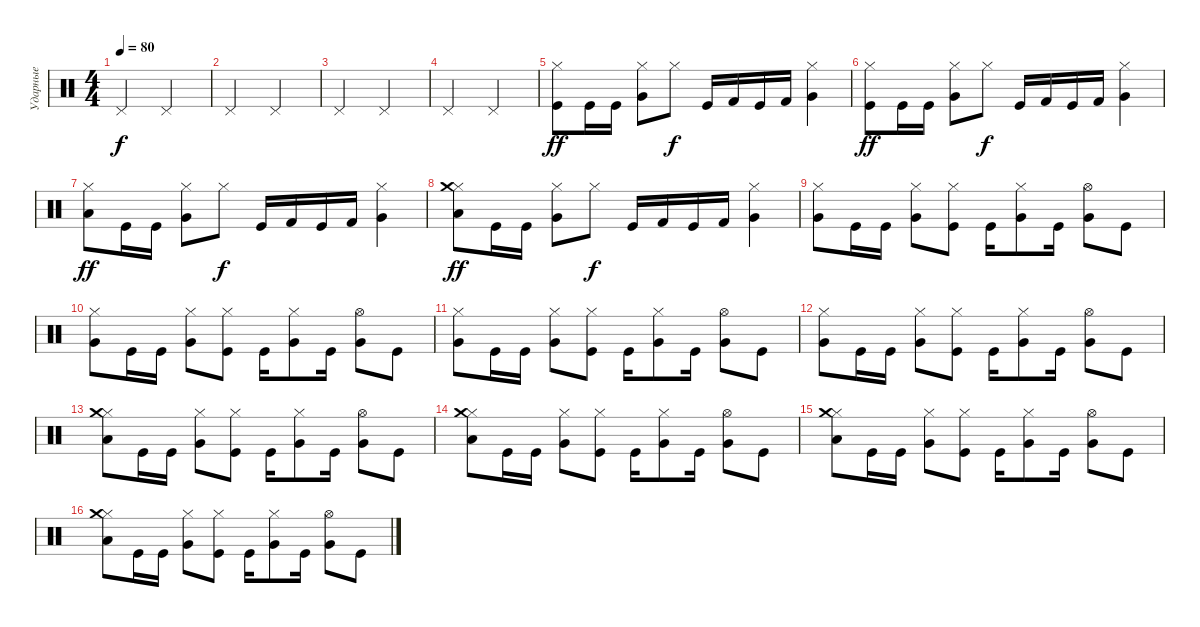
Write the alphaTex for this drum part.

\track ("Ударные" "Ударные") {instrument percussion}
\staff {score}
\articulation defaults
\ts (4 4)
\tempo 80
\clef neutral
\ks c "Pedal Hi-Hat (hit)".2{dy f} "Pedal Hi-Hat (hit)".2
|
"Pedal Hi-Hat (hit)".2 "Pedal Hi-Hat (hit)".2 |
"Pedal Hi-Hat (hit)".2 "Pedal Hi-Hat (hit)".2 |
"Pedal Hi-Hat (hit)".2 "Pedal Hi-Hat (hit)".2 |
("Hi-Hat (closed)" "Kick (hit)").8{dy ff} "Kick (hit)".16 "Kick (hit)".16 ("Hi-Hat (closed)" "Very Low Tom (hit)").8 "Hi-Hat (closed)".8{dy f} "Kick (hit)".16 "Kick (hit) 2".16 "Kick (hit)".16 "Kick (hit) 2".16 ("Hi-Hat (closed)" "Very Low Tom (hit)").4 |
("Hi-Hat (closed)" "Kick (hit)").8{dy ff} "Kick (hit)".16 "Kick (hit)".16 ("Hi-Hat (closed)" "Very Low Tom (hit)").8 "Hi-Hat (closed)".8{dy f} "Kick (hit)".16 "Kick (hit) 2".16 "Kick (hit)".16 "Kick (hit) 2".16 ("Hi-Hat (closed)" "Very Low Tom (hit)").4 |
("Hi-Hat (closed)" "Low Tom (hit)").8{dy ff} "Kick (hit)".16 "Kick (hit)".16 ("Hi-Hat (closed)" "Very Low Tom (hit)").8 "Hi-Hat (closed)".8{dy f} "Kick (hit)".16 "Kick (hit) 2".16 "Kick (hit)".16 "Kick (hit) 2".16 ("Hi-Hat (closed)" "Very Low Tom (hit)").4 |
("Hi-Hat (closed)" "Crash medium (hit)" "Low Tom (hit)").8{dy ff} "Kick (hit)".16 "Kick (hit)".16 ("Hi-Hat (closed)" "Very Low Tom (hit)").8 "Hi-Hat (closed)".8{dy f} "Kick (hit)".16 "Kick (hit) 2".16 "Kick (hit)".16 "Kick (hit) 2".16 ("Hi-Hat (closed)" "Very Low Tom (hit)").4 |
("Hi-Hat (closed)" "Very Low Tom (hit)").8 "Kick (hit)".16 "Kick (hit)".16 ("Hi-Hat (closed)" "Very Low Tom (hit)").8 ("Hi-Hat (closed)" "Kick (hit)").8 "Kick (hit)".16 ("Hi-Hat (closed)" "Very Low Tom (hit)").8 "Kick (hit)".16 ("Hi-Hat (open)" "Very Low Tom (hit)").8 "Kick (hit)".8 |
("Hi-Hat (closed)" "Very Low Tom (hit)").8 "Kick (hit)".16 "Kick (hit)".16 ("Hi-Hat (closed)" "Very Low Tom (hit)").8 ("Hi-Hat (closed)" "Kick (hit)").8 "Kick (hit)".16 ("Hi-Hat (closed)" "Very Low Tom (hit)").8 "Kick (hit)".16 ("Hi-Hat (open)" "Very Low Tom (hit)").8 "Kick (hit)".8 |
("Hi-Hat (closed)" "Very Low Tom (hit)").8 "Kick (hit)".16 "Kick (hit)".16 ("Hi-Hat (closed)" "Very Low Tom (hit)").8 ("Hi-Hat (closed)" "Kick (hit)").8 "Kick (hit)".16 ("Hi-Hat (closed)" "Very Low Tom (hit)").8 "Kick (hit)".16 ("Hi-Hat (open)" "Very Low Tom (hit)").8 "Kick (hit)".8 |
("Hi-Hat (closed)" "Very Low Tom (hit)").8 "Kick (hit)".16 "Kick (hit)".16 ("Hi-Hat (closed)" "Very Low Tom (hit)").8 ("Hi-Hat (closed)" "Kick (hit)").8 "Kick (hit)".16 ("Hi-Hat (closed)" "Very Low Tom (hit)").8 "Kick (hit)".16 ("Hi-Hat (open)" "Very Low Tom (hit)").8 "Kick (hit)".8 |
("Hi-Hat (closed)" "Crash medium (hit)" "Low Tom (hit)").8 "Kick (hit)".16 "Kick (hit)".16 ("Hi-Hat (closed)" "Very Low Tom (hit)").8 ("Hi-Hat (closed)" "Kick (hit)").8 "Kick (hit)".16 ("Hi-Hat (closed)" "Very Low Tom (hit)").8 "Kick (hit)".16 ("Hi-Hat (open)" "Very Low Tom (hit)").8 "Kick (hit)".8 |
("Hi-Hat (closed)" "Crash medium (hit)" "Low Tom (hit)").8 "Kick (hit)".16 "Kick (hit)".16 ("Hi-Hat (closed)" "Very Low Tom (hit)").8 ("Hi-Hat (closed)" "Kick (hit)").8 "Kick (hit)".16 ("Hi-Hat (closed)" "Very Low Tom (hit)").8 "Kick (hit)".16 ("Hi-Hat (open)" "Very Low Tom (hit)").8 "Kick (hit)".8 |
("Hi-Hat (closed)" "Crash medium (hit)" "Low Tom (hit)").8 "Kick (hit)".16 "Kick (hit)".16 ("Hi-Hat (closed)" "Very Low Tom (hit)").8 ("Hi-Hat (closed)" "Kick (hit)").8 "Kick (hit)".16 ("Hi-Hat (closed)" "Very Low Tom (hit)").8 "Kick (hit)".16 ("Hi-Hat (open)" "Very Low Tom (hit)").8 "Kick (hit)".8 |
("Hi-Hat (closed)" "Crash medium (hit)" "Low Tom (hit)").8 "Kick (hit)".16 "Kick (hit)".16 ("Hi-Hat (closed)" "Very Low Tom (hit)").8 ("Hi-Hat (closed)" "Kick (hit)").8 "Kick (hit)".16 ("Hi-Hat (closed)" "Very Low Tom (hit)").8 "Kick (hit)".16 ("Hi-Hat (open)" "Very Low Tom (hit)").8 "Kick (hit)".8
